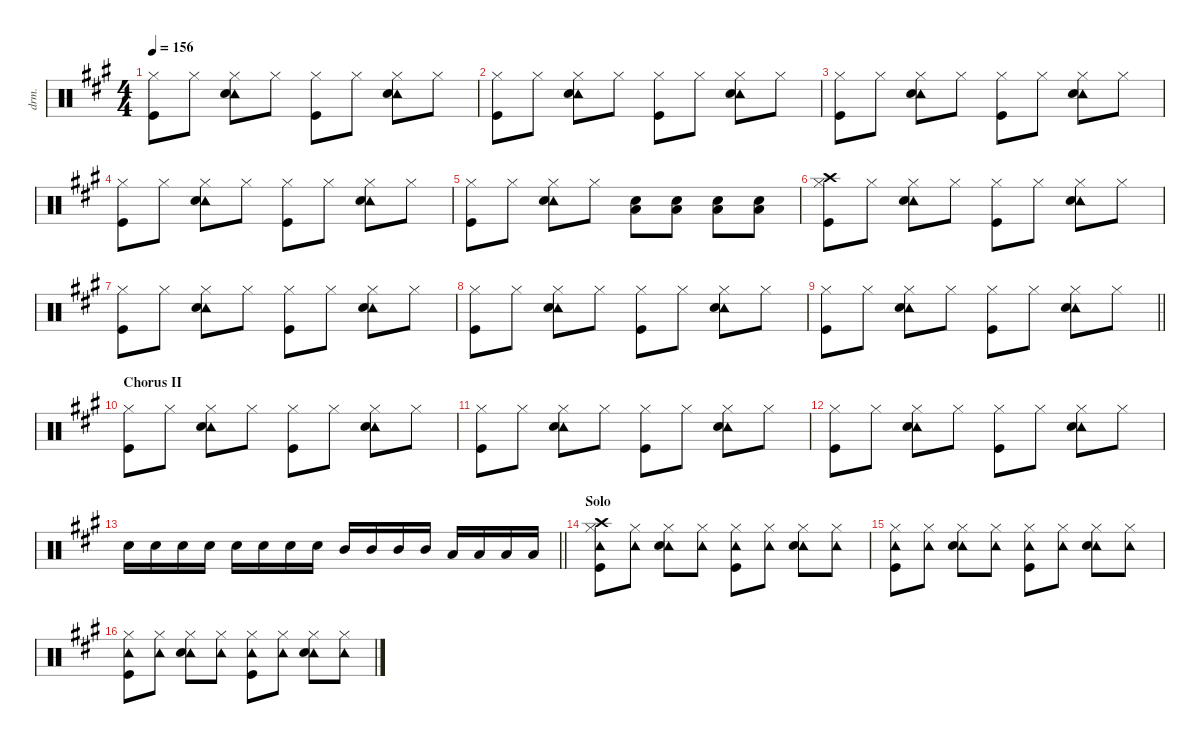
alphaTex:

\defaultSystemsLayout 4
\hideDynamics
\bracketExtendMode nobrackets
\otherSystemsTrackNameOrientation horizontal
\track ("Drums" "drm.") {instrument percussion}
\staff {score}
\articulation defaults
\ts (4 4)
\tempo 156
\clef neutral
\ks a
("Hi-Hat (closed)"{acc forcenatural} "Kick (hit)"{acc forcenatural}).8{dy f beam Down} "Hi-Hat (closed)"{acc forcenatural}.8{beam Down} ("Hi-Hat (closed)"{acc forcenatural} "Tambourine (hit)"{acc forcenatural} "Snare (hit) 2"{acc forcenatural}).8{beam Down} "Hi-Hat (closed)"{acc forcenatural}.8{beam Down} ("Hi-Hat (closed)"{acc forcenatural} "Kick (hit)"{acc forcenatural}).8{beam Down} "Hi-Hat (closed)"{acc forcenatural}.8{beam Down} ("Hi-Hat (closed)"{acc forcenatural} "Tambourine (hit)"{acc forcenatural} "Snare (hit) 2"{acc forcenatural}).8{beam Down} "Hi-Hat (closed)"{acc forcenatural}.8{beam Down} |
("Hi-Hat (closed)"{acc forcenatural} "Kick (hit)"{acc forcenatural}).8{beam Down} "Hi-Hat (closed)"{acc forcenatural}.8{beam Down} ("Hi-Hat (closed)"{acc forcenatural} "Tambourine (hit)"{acc forcenatural} "Snare (hit) 2"{acc forcenatural}).8{beam Down} "Hi-Hat (closed)"{acc forcenatural}.8{beam Down} ("Hi-Hat (closed)"{acc forcenatural} "Kick (hit)"{acc forcenatural}).8{beam Down} "Hi-Hat (closed)"{acc forcenatural}.8{beam Down} ("Hi-Hat (closed)"{acc forcenatural} "Tambourine (hit)"{acc forcenatural} "Snare (hit) 2"{acc forcenatural}).8{beam Down} "Hi-Hat (closed)"{acc forcenatural}.8{beam Down} |
("Hi-Hat (closed)"{acc forcenatural} "Kick (hit)"{acc forcenatural}).8{beam Down} "Hi-Hat (closed)"{acc forcenatural}.8{beam Down} ("Hi-Hat (closed)"{acc forcenatural} "Tambourine (hit)"{acc forcenatural} "Snare (hit) 2"{acc forcenatural}).8{beam Down} "Hi-Hat (closed)"{acc forcenatural}.8{beam Down} ("Hi-Hat (closed)"{acc forcenatural} "Kick (hit)"{acc forcenatural}).8{beam Down} "Hi-Hat (closed)"{acc forcenatural}.8{beam Down} ("Hi-Hat (closed)"{acc forcenatural} "Tambourine (hit)"{acc forcenatural} "Snare (hit) 2"{acc forcenatural}).8{beam Down} "Hi-Hat (closed)"{acc forcenatural}.8{beam Down} |
("Hi-Hat (closed)"{acc forcenatural} "Kick (hit)"{acc forcenatural}).8{beam Down} "Hi-Hat (closed)"{acc forcenatural}.8{beam Down} ("Hi-Hat (closed)"{acc forcenatural} "Tambourine (hit)"{acc forcenatural} "Snare (hit) 2"{acc forcenatural}).8{beam Down} "Hi-Hat (closed)"{acc forcenatural}.8{beam Down} ("Hi-Hat (closed)"{acc forcenatural} "Kick (hit)"{acc forcenatural}).8{beam Down} "Hi-Hat (closed)"{acc forcenatural}.8{beam Down} ("Hi-Hat (closed)"{acc forcenatural} "Tambourine (hit)"{acc forcenatural} "Snare (hit) 2"{acc forcenatural}).8{beam Down} "Hi-Hat (closed)"{acc forcenatural}.8{beam Down} |
("Hi-Hat (closed)"{acc forcenatural} "Kick (hit)"{acc forcenatural}).8{beam Down} "Hi-Hat (closed)"{acc forcenatural}.8{beam Down} ("Hi-Hat (closed)"{acc forcenatural} "Tambourine (hit)"{acc forcenatural} "Snare (hit) 2"{acc forcenatural}).8{beam Down} "Hi-Hat (closed)"{acc forcenatural}.8{beam Down} ("Snare (hit) 2"{acc forcenatural} "Low Floor Tom (hit)"{acc forcenatural}).8{beam Down} ("Snare (hit) 2"{acc forcenatural} "Low Floor Tom (hit)"{acc forcenatural}).8{beam Down} ("Snare (hit) 2"{acc forcenatural} "Low Floor Tom (hit)"{acc forcenatural}).8{beam Down} ("Snare (hit) 2"{acc forcenatural} "Low Floor Tom (hit)"{acc forcenatural}).8{beam Down} |
("Hi-Hat (closed)"{acc forcenatural} "Crash high (hit)"{acc forcenatural} "Kick (hit)"{acc forcenatural}).8{beam Down} "Hi-Hat (closed)"{acc forcenatural}.8{beam Down} ("Hi-Hat (closed)"{acc forcenatural} "Tambourine (hit)"{acc forcenatural} "Snare (hit) 2"{acc forcenatural}).8{beam Down} "Hi-Hat (closed)"{acc forcenatural}.8{beam Down} ("Hi-Hat (closed)"{acc forcenatural} "Kick (hit)"{acc forcenatural}).8{beam Down} "Hi-Hat (closed)"{acc forcenatural}.8{beam Down} ("Hi-Hat (closed)"{acc forcenatural} "Tambourine (hit)"{acc forcenatural} "Snare (hit) 2"{acc forcenatural}).8{beam Down} "Hi-Hat (closed)"{acc forcenatural}.8{beam Down} |
("Hi-Hat (closed)"{acc forcenatural} "Kick (hit)"{acc forcenatural}).8{beam Down} "Hi-Hat (closed)"{acc forcenatural}.8{beam Down} ("Hi-Hat (closed)"{acc forcenatural} "Tambourine (hit)"{acc forcenatural} "Snare (hit) 2"{acc forcenatural}).8{beam Down} "Hi-Hat (closed)"{acc forcenatural}.8{beam Down} ("Hi-Hat (closed)"{acc forcenatural} "Kick (hit)"{acc forcenatural}).8{beam Down} "Hi-Hat (closed)"{acc forcenatural}.8{beam Down} ("Hi-Hat (closed)"{acc forcenatural} "Tambourine (hit)"{acc forcenatural} "Snare (hit) 2"{acc forcenatural}).8{beam Down} "Hi-Hat (closed)"{acc forcenatural}.8{beam Down} |
("Hi-Hat (closed)"{acc forcenatural} "Kick (hit)"{acc forcenatural}).8{beam Down} "Hi-Hat (closed)"{acc forcenatural}.8{beam Down} ("Hi-Hat (closed)"{acc forcenatural} "Tambourine (hit)"{acc forcenatural} "Snare (hit) 2"{acc forcenatural}).8{beam Down} "Hi-Hat (closed)"{acc forcenatural}.8{beam Down} ("Hi-Hat (closed)"{acc forcenatural} "Kick (hit)"{acc forcenatural}).8{beam Down} "Hi-Hat (closed)"{acc forcenatural}.8{beam Down} ("Hi-Hat (closed)"{acc forcenatural} "Tambourine (hit)"{acc forcenatural} "Snare (hit) 2"{acc forcenatural}).8{beam Down} "Hi-Hat (closed)"{acc forcenatural}.8{beam Down} |
\barLineRight lightlight
("Hi-Hat (closed)"{acc forcenatural} "Kick (hit)"{acc forcenatural}).8{beam Down} "Hi-Hat (closed)"{acc forcenatural}.8{beam Down} ("Hi-Hat (closed)"{acc forcenatural} "Tambourine (hit)"{acc forcenatural} "Snare (hit) 2"{acc forcenatural}).8{beam Down} "Hi-Hat (closed)"{acc forcenatural}.8{beam Down} ("Hi-Hat (closed)"{acc forcenatural} "Kick (hit)"{acc forcenatural}).8{beam Down} "Hi-Hat (closed)"{acc forcenatural}.8{beam Down} ("Hi-Hat (closed)"{acc forcenatural} "Tambourine (hit)"{acc forcenatural} "Snare (hit) 2"{acc forcenatural}).8{beam Down} "Hi-Hat (closed)"{acc forcenatural}.8{beam Down} |
\section ("" "Chorus II")
("Hi-Hat (closed)"{acc forcenatural} "Kick (hit)"{acc forcenatural}).8{beam Down} "Hi-Hat (closed)"{acc forcenatural}.8{beam Down} ("Hi-Hat (closed)"{acc forcenatural} "Tambourine (hit)"{acc forcenatural} "Snare (hit) 2"{acc forcenatural}).8{beam Down} "Hi-Hat (closed)"{acc forcenatural}.8{beam Down} ("Hi-Hat (closed)"{acc forcenatural} "Kick (hit)"{acc forcenatural}).8{beam Down} "Hi-Hat (closed)"{acc forcenatural}.8{beam Down} ("Hi-Hat (closed)"{acc forcenatural} "Tambourine (hit)"{acc forcenatural} "Snare (hit) 2"{acc forcenatural}).8{beam Down} "Hi-Hat (closed)"{acc forcenatural}.8{beam Down} |
("Hi-Hat (closed)"{acc forcenatural} "Kick (hit)"{acc forcenatural}).8{beam Down} "Hi-Hat (closed)"{acc forcenatural}.8{beam Down} ("Hi-Hat (closed)"{acc forcenatural} "Tambourine (hit)"{acc forcenatural} "Snare (hit) 2"{acc forcenatural}).8{beam Down} "Hi-Hat (closed)"{acc forcenatural}.8{beam Down} ("Hi-Hat (closed)"{acc forcenatural} "Kick (hit)"{acc forcenatural}).8{beam Down} "Hi-Hat (closed)"{acc forcenatural}.8{beam Down} ("Hi-Hat (closed)"{acc forcenatural} "Tambourine (hit)"{acc forcenatural} "Snare (hit) 2"{acc forcenatural}).8{beam Down} "Hi-Hat (closed)"{acc forcenatural}.8{beam Down} |
("Hi-Hat (closed)"{acc forcenatural} "Kick (hit)"{acc forcenatural}).8{beam Down} "Hi-Hat (closed)"{acc forcenatural}.8{beam Down} ("Hi-Hat (closed)"{acc forcenatural} "Tambourine (hit)"{acc forcenatural} "Snare (hit) 2"{acc forcenatural}).8{beam Down} "Hi-Hat (closed)"{acc forcenatural}.8{beam Down} ("Hi-Hat (closed)"{acc forcenatural} "Kick (hit)"{acc forcenatural}).8{beam Down} "Hi-Hat (closed)"{acc forcenatural}.8{beam Down} ("Hi-Hat (closed)"{acc forcenatural} "Tambourine (hit)"{acc forcenatural} "Snare (hit) 2"{acc forcenatural}).8{beam Down} "Hi-Hat (closed)"{acc forcenatural}.8{beam Down} |
\barLineRight lightlight "Snare (hit) 2"{acc forcenatural}.16{beam Down} "Snare (hit) 2"{acc forcenatural}.16{beam Down} "Snare (hit) 2"{acc forcenatural}.16{beam Down} "Snare (hit) 2"{acc forcenatural}.16{beam Down} "Snare (hit) 2"{acc forcenatural}.16{beam Down} "Snare (hit) 2"{acc forcenatural}.16{beam Down} "Snare (hit) 2"{acc forcenatural}.16{beam Down} "Snare (hit) 2"{acc forcenatural}.16{beam Down} "Mid Tom (hit)"{acc forcenatural}.16{beam Up} "Mid Tom (hit)"{acc forcenatural}.16{beam Up} "Mid Tom (hit)"{acc forcenatural}.16{beam Up} "Mid Tom (hit)"{acc forcenatural}.16{beam Up} "Low Tom (hit)"{acc forcenatural}.16{beam Up} "Low Tom (hit)"{acc forcenatural}.16{beam Up} "Low Tom (hit)"{acc forcenatural}.16{beam Up} "Low Tom (hit)"{acc forcenatural}.16{beam Up}
|
\section ("" "Solo")
("Hi-Hat (closed)"{acc forcenatural} "Crash high (hit)"{acc forcenatural} "Tambourine (hit)"{acc forcenatural} "Kick (hit)"{acc forcenatural}).8{beam Down} ("Hi-Hat (closed)"{acc forcenatural} "Tambourine (hit)"{acc forcenatural}).8{beam Down} ("Hi-Hat (closed)"{acc forcenatural} "Tambourine (hit)"{acc forcenatural} "Snare (hit) 2"{acc forcenatural}).8{beam Down} ("Hi-Hat (closed)"{acc forcenatural} "Tambourine (hit)"{acc forcenatural}).8{beam Down} ("Hi-Hat (closed)"{acc forcenatural} "Tambourine (hit)"{acc forcenatural} "Kick (hit)"{acc forcenatural}).8{beam Down} ("Hi-Hat (closed)"{acc forcenatural} "Tambourine (hit)"{acc forcenatural}).8{beam Down} ("Hi-Hat (closed)"{acc forcenatural} "Tambourine (hit)"{acc forcenatural} "Snare (hit) 2"{acc forcenatural}).8{beam Down} ("Hi-Hat (closed)"{acc forcenatural} "Tambourine (hit)"{acc forcenatural}).8{beam Down} |
("Hi-Hat (closed)"{acc forcenatural} "Tambourine (hit)"{acc forcenatural} "Kick (hit)"{acc forcenatural}).8{beam Down} ("Hi-Hat (closed)"{acc forcenatural} "Tambourine (hit)"{acc forcenatural}).8{beam Down} ("Hi-Hat (closed)"{acc forcenatural} "Tambourine (hit)"{acc forcenatural} "Snare (hit) 2"{acc forcenatural}).8{beam Down} ("Hi-Hat (closed)"{acc forcenatural} "Tambourine (hit)"{acc forcenatural}).8{beam Down} ("Hi-Hat (closed)"{acc forcenatural} "Tambourine (hit)"{acc forcenatural} "Kick (hit)"{acc forcenatural}).8{beam Down} ("Hi-Hat (closed)"{acc forcenatural} "Tambourine (hit)"{acc forcenatural}).8{beam Down} ("Hi-Hat (closed)"{acc forcenatural} "Tambourine (hit)"{acc forcenatural} "Snare (hit) 2"{acc forcenatural}).8{beam Down} ("Hi-Hat (closed)"{acc forcenatural} "Tambourine (hit)"{acc forcenatural}).8{beam Down} |
("Hi-Hat (closed)"{acc forcenatural} "Tambourine (hit)"{acc forcenatural} "Kick (hit)"{acc forcenatural}).8{beam Down} ("Hi-Hat (closed)"{acc forcenatural} "Tambourine (hit)"{acc forcenatural}).8{beam Down} ("Hi-Hat (closed)"{acc forcenatural} "Tambourine (hit)"{acc forcenatural} "Snare (hit) 2"{acc forcenatural}).8{beam Down} ("Hi-Hat (closed)"{acc forcenatural} "Tambourine (hit)"{acc forcenatural}).8{beam Down} ("Hi-Hat (closed)"{acc forcenatural} "Tambourine (hit)"{acc forcenatural} "Kick (hit)"{acc forcenatural}).8{beam Down} ("Hi-Hat (closed)"{acc forcenatural} "Tambourine (hit)"{acc forcenatural}).8{beam Down} ("Hi-Hat (closed)"{acc forcenatural} "Tambourine (hit)"{acc forcenatural} "Snare (hit) 2"{acc forcenatural}).8{beam Down} ("Hi-Hat (closed)"{acc forcenatural} "Tambourine (hit)"{acc forcenatural}).8{beam Down}
